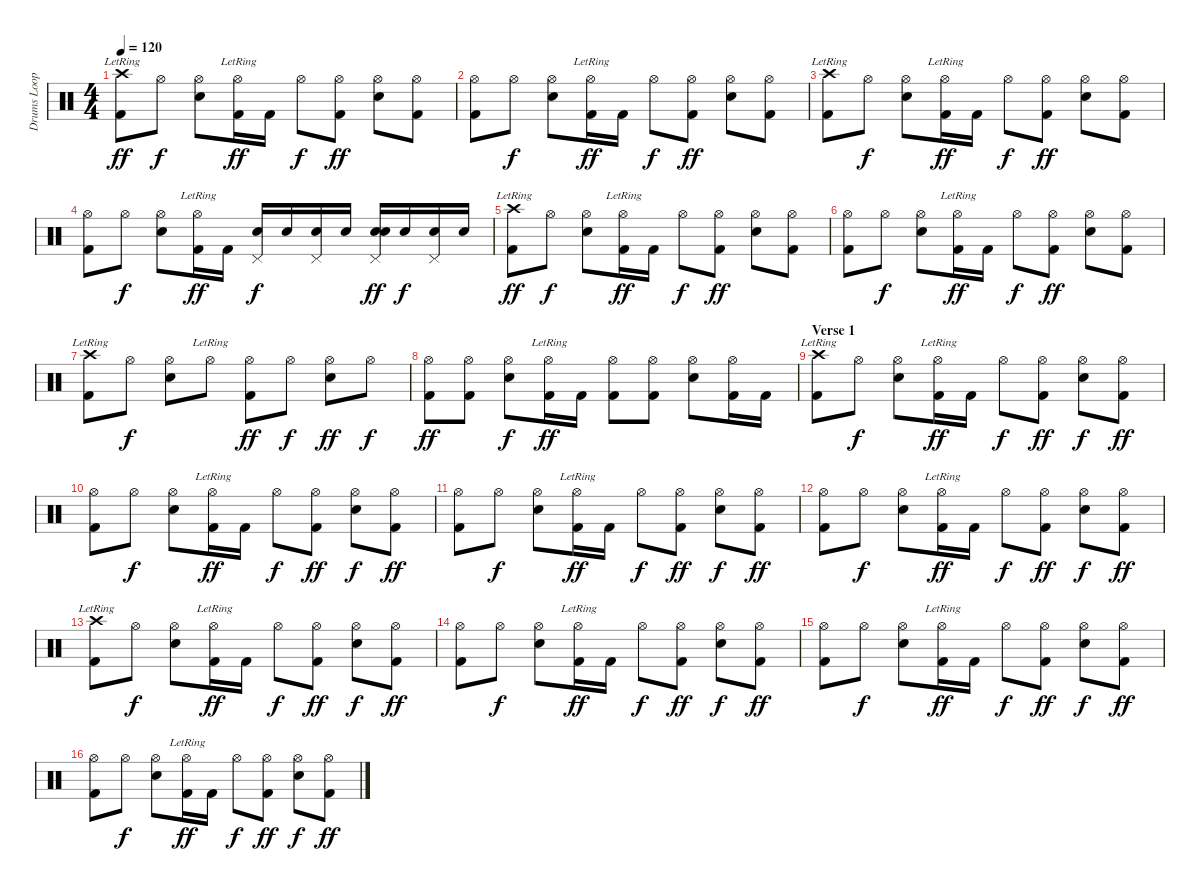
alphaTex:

\track ("Drums Looping" "Drums Loop") {instrument percussion}
\staff {score}
\articulation defaults
\ts (4 4)
\tempo 120
\clef neutral
\ks c
("Crash high (hit)"{lr} "Kick (hit) 2").8{dy ff} "Hi-Hat (open)".8{dy f} ("Hi-Hat (open)" "Snare (hit) 2").8 ("Hi-Hat (open)"{lr} "Kick (hit) 2").16{dy ff} "Kick (hit) 2".16 "Hi-Hat (open)".8{dy f} ("Hi-Hat (open)" "Kick (hit) 2").8{dy ff} ("Hi-Hat (open)" "Electric Snare (hit)").8 ("Hi-Hat (open)" "Kick (hit) 2").8 |
("Hi-Hat (open)" "Kick (hit) 2").8 "Hi-Hat (open)".8{dy f} ("Hi-Hat (open)" "Snare (hit) 2").8 ("Hi-Hat (open)"{lr} "Kick (hit) 2").16{dy ff} "Kick (hit) 2".16 "Hi-Hat (open)".8{dy f} ("Hi-Hat (open)" "Kick (hit) 2").8{dy ff} ("Hi-Hat (open)" "Electric Snare (hit)").8 ("Hi-Hat (open)" "Kick (hit) 2").8 |
("Crash high (hit)"{lr} "Kick (hit) 2").8 "Hi-Hat (open)".8{dy f} ("Hi-Hat (open)" "Snare (hit) 2").8 ("Hi-Hat (open)"{lr} "Kick (hit) 2").16{dy ff} "Kick (hit) 2".16 "Hi-Hat (open)".8{dy f} ("Hi-Hat (open)" "Kick (hit) 2").8{dy ff} ("Hi-Hat (open)" "Electric Snare (hit)").8 ("Hi-Hat (open)" "Kick (hit) 2").8 |
("Hi-Hat (open)" "Kick (hit) 2").8 "Hi-Hat (open)".8{dy f} ("Hi-Hat (open)" "Snare (hit) 2").8 ("Hi-Hat (open)"{lr} "Kick (hit) 2").16{dy ff} "Kick (hit) 2".16 ("Pedal Hi-Hat (hit)" "Snare (hit) 2").16{dy f} "Snare (hit) 2".16 ("Pedal Hi-Hat (hit)" "Snare (hit) 2").16 "Snare (hit) 2".16 ("Pedal Hi-Hat (hit)" "Snare (hit) 2" "Electric Snare (hit)").16{dy ff} "Snare (hit) 2".16{dy f} ("Pedal Hi-Hat (hit)" "Snare (hit) 2").16 "Snare (hit) 2".16 |
("Crash high (hit)"{lr} "Kick (hit) 2").8{dy ff} "Hi-Hat (open)".8{dy f} ("Hi-Hat (open)" "Snare (hit) 2").8 ("Hi-Hat (open)"{lr} "Kick (hit) 2").16{dy ff} "Kick (hit) 2".16 "Hi-Hat (open)".8{dy f} ("Hi-Hat (open)" "Kick (hit) 2").8{dy ff} ("Hi-Hat (open)" "Electric Snare (hit)").8 ("Hi-Hat (open)" "Kick (hit) 2").8 |
("Hi-Hat (open)" "Kick (hit) 2").8 "Hi-Hat (open)".8{dy f} ("Hi-Hat (open)" "Snare (hit) 2").8 ("Hi-Hat (open)"{lr} "Kick (hit) 2").16{dy ff} "Kick (hit) 2".16 "Hi-Hat (open)".8{dy f} ("Hi-Hat (open)" "Kick (hit) 2").8{dy ff} ("Hi-Hat (open)" "Electric Snare (hit)").8 ("Hi-Hat (open)" "Kick (hit) 2").8 |
("Crash high (hit)"{lr} "Kick (hit) 2").8 "Hi-Hat (open)".8{dy f} ("Hi-Hat (open)" "Snare (hit) 2").8 "Hi-Hat (open)"{lr}.8 ("Hi-Hat (open)" "Kick (hit) 2").8{dy ff} "Hi-Hat (open)".8{dy f} ("Hi-Hat (open)" "Electric Snare (hit)").8{dy ff} "Hi-Hat (open)".8{dy f} |
("Hi-Hat (open)" "Kick (hit) 2").8{dy ff} ("Hi-Hat (open)" "Kick (hit) 2").8 ("Hi-Hat (open)" "Snare (hit) 2").8{dy f} ("Hi-Hat (open)"{lr} "Kick (hit) 2").16{dy ff} "Kick (hit) 2".16 ("Hi-Hat (open)" "Kick (hit) 2").8 ("Hi-Hat (open)" "Kick (hit) 2").8 ("Hi-Hat (open)" "Electric Snare (hit)").8 ("Hi-Hat (open)" "Kick (hit) 2").16 "Kick (hit) 2".16 |
\section ("" "Verse 1")
("Crash high (hit)"{lr} "Kick (hit) 2").8 "Hi-Hat (open)".8{dy f} ("Hi-Hat (open)" "Snare (hit) 2").8 ("Hi-Hat (open)"{lr} "Kick (hit) 2").16{dy ff} "Kick (hit) 2".16 "Hi-Hat (open)".8{dy f} ("Hi-Hat (open)" "Kick (hit) 2").8{dy ff} ("Hi-Hat (open)" "Snare (hit) 2").8{dy f} ("Hi-Hat (open)" "Kick (hit) 2").8{dy ff} |
("Hi-Hat (open)" "Kick (hit) 2").8 "Hi-Hat (open)".8{dy f} ("Hi-Hat (open)" "Snare (hit) 2").8 ("Hi-Hat (open)"{lr} "Kick (hit) 2").16{dy ff} "Kick (hit) 2".16 "Hi-Hat (open)".8{dy f} ("Hi-Hat (open)" "Kick (hit) 2").8{dy ff} ("Hi-Hat (open)" "Snare (hit) 2").8{dy f} ("Hi-Hat (open)" "Kick (hit) 2").8{dy ff} |
("Hi-Hat (open)" "Kick (hit) 2").8 "Hi-Hat (open)".8{dy f} ("Hi-Hat (open)" "Snare (hit) 2").8 ("Hi-Hat (open)"{lr} "Kick (hit) 2").16{dy ff} "Kick (hit) 2".16 "Hi-Hat (open)".8{dy f} ("Hi-Hat (open)" "Kick (hit) 2").8{dy ff} ("Hi-Hat (open)" "Snare (hit) 2").8{dy f} ("Hi-Hat (open)" "Kick (hit) 2").8{dy ff} |
("Hi-Hat (open)" "Kick (hit) 2").8 "Hi-Hat (open)".8{dy f} ("Hi-Hat (open)" "Snare (hit) 2").8 ("Hi-Hat (open)"{lr} "Kick (hit) 2").16{dy ff} "Kick (hit) 2".16 "Hi-Hat (open)".8{dy f} ("Hi-Hat (open)" "Kick (hit) 2").8{dy ff} ("Hi-Hat (open)" "Snare (hit) 2").8{dy f} ("Hi-Hat (open)" "Kick (hit) 2").8{dy ff} |
("Crash high (hit)"{lr} "Kick (hit) 2").8 "Hi-Hat (open)".8{dy f} ("Hi-Hat (open)" "Snare (hit) 2").8 ("Hi-Hat (open)"{lr} "Kick (hit) 2").16{dy ff} "Kick (hit) 2".16 "Hi-Hat (open)".8{dy f} ("Hi-Hat (open)" "Kick (hit) 2").8{dy ff} ("Hi-Hat (open)" "Snare (hit) 2").8{dy f} ("Hi-Hat (open)" "Kick (hit) 2").8{dy ff} |
("Hi-Hat (open)" "Kick (hit) 2").8 "Hi-Hat (open)".8{dy f} ("Hi-Hat (open)" "Snare (hit) 2").8 ("Hi-Hat (open)"{lr} "Kick (hit) 2").16{dy ff} "Kick (hit) 2".16 "Hi-Hat (open)".8{dy f} ("Hi-Hat (open)" "Kick (hit) 2").8{dy ff} ("Hi-Hat (open)" "Snare (hit) 2").8{dy f} ("Hi-Hat (open)" "Kick (hit) 2").8{dy ff} |
("Hi-Hat (open)" "Kick (hit) 2").8 "Hi-Hat (open)".8{dy f} ("Hi-Hat (open)" "Snare (hit) 2").8 ("Hi-Hat (open)"{lr} "Kick (hit) 2").16{dy ff} "Kick (hit) 2".16 "Hi-Hat (open)".8{dy f} ("Hi-Hat (open)" "Kick (hit) 2").8{dy ff} ("Hi-Hat (open)" "Snare (hit) 2").8{dy f} ("Hi-Hat (open)" "Kick (hit) 2").8{dy ff} |
("Hi-Hat (open)" "Kick (hit) 2").8 "Hi-Hat (open)".8{dy f} ("Hi-Hat (open)" "Snare (hit) 2").8 ("Hi-Hat (open)"{lr} "Kick (hit) 2").16{dy ff} "Kick (hit) 2".16 "Hi-Hat (open)".8{dy f} ("Hi-Hat (open)" "Kick (hit) 2").8{dy ff} ("Hi-Hat (open)" "Snare (hit) 2").8{dy f} ("Hi-Hat (open)" "Kick (hit) 2").8{dy ff}
